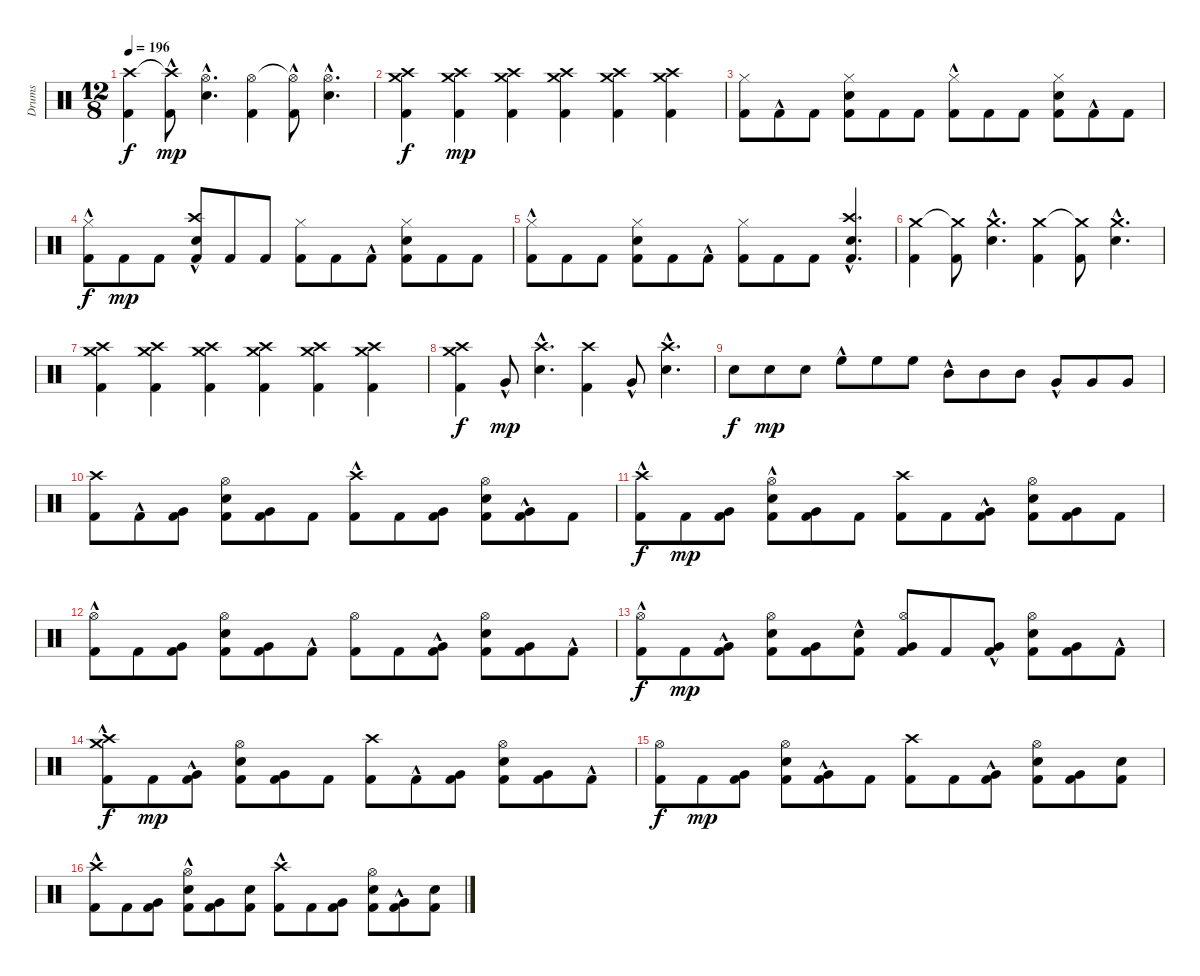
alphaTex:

\track ("Drums" "Drums") {instrument percussion}
\staff {score}
\articulation defaults
\ts (12 8)
\tempo 196
\clef neutral
\ks c
("Kick (hit) 2" "Crash high (hit)").4{dy f} ("Kick (hit) 2"{hac} "Crash high (hit)"{t}).8{dy mp} ("Electric Snare (hit)"{hac} "Hi-Hat (open)"{hac}).4{d} ("Kick (hit) 2" "Hi-Hat (open)").4 ("Kick (hit) 2"{hac} "Hi-Hat (open)"{t}).8 ("Electric Snare (hit)"{hac} "Hi-Hat (open)"{hac}).4{d} |
("Kick (hit) 2" "Crash high (hit)" "Crash medium (hit)").4{dy f} ("Kick (hit) 2" "Crash high (hit)" "Crash medium (hit)").4{dy mp} ("Kick (hit) 2" "Crash high (hit)" "Crash medium (hit)").4 ("Kick (hit) 2" "Crash high (hit)" "Crash medium (hit)").4 ("Kick (hit) 2" "Crash high (hit)" "Crash medium (hit)").4 ("Kick (hit) 2" "Crash high (hit)" "Crash medium (hit)").4 |
("Kick (hit) 2" "Hi-Hat (closed)").8 "Kick (hit) 2"{hac}.8 "Kick (hit) 2".8 ("Kick (hit) 2" "Electric Snare (hit)" "Hi-Hat (closed)").8 "Kick (hit) 2".8 "Kick (hit) 2".8 ("Kick (hit) 2"{hac} "Hi-Hat (closed)").8 "Kick (hit) 2".8 "Kick (hit) 2".8 ("Kick (hit) 2" "Electric Snare (hit)" "Hi-Hat (closed)").8 "Kick (hit) 2"{hac}.8 "Kick (hit) 2".8 |
("Kick (hit) 2" "Hi-Hat (closed)"{hac}).8{dy f} "Kick (hit) 2".8{dy mp} "Kick (hit) 2".8 ("Kick (hit) 2"{hac} "Electric Snare (hit)" "Crash high (hit)").8 "Kick (hit) 2".8 "Kick (hit) 2".8 ("Kick (hit) 2" "Hi-Hat (closed)").8 "Kick (hit) 2".8 "Kick (hit) 2"{hac}.8 ("Kick (hit) 2" "Electric Snare (hit)" "Hi-Hat (closed)").8 "Kick (hit) 2".8 "Kick (hit) 2".8 |
("Kick (hit) 2"{hac} "Hi-Hat (closed)").8 "Kick (hit) 2".8 "Kick (hit) 2".8 ("Kick (hit) 2" "Electric Snare (hit)" "Hi-Hat (closed)").8 "Kick (hit) 2".8 "Kick (hit) 2"{hac}.8 ("Kick (hit) 2" "Hi-Hat (closed)").8 "Kick (hit) 2".8 "Kick (hit) 2".8 ("Kick (hit) 2"{hac} "Electric Snare (hit)"{hac} "Crash high (hit)"{hac}).4{d} |
("Kick (hit) 2" "Crash medium (hit)").4 ("Kick (hit) 2" "Crash medium (hit)"{t}).8 ("Electric Snare (hit)"{hac} "Crash medium (hit)"{hac}).4{d} ("Kick (hit) 2" "Crash medium (hit)").4 ("Kick (hit) 2" "Crash medium (hit)"{t}).8 ("Electric Snare (hit)"{hac} "Crash medium (hit)"{hac}).4{d} |
("Kick (hit) 2" "Crash high (hit)" "Crash medium (hit)").4 ("Kick (hit) 2" "Crash high (hit)" "Crash medium (hit)").4 ("Kick (hit) 2" "Crash high (hit)" "Crash medium (hit)").4 ("Kick (hit) 2" "Crash high (hit)" "Crash medium (hit)").4 ("Kick (hit) 2" "Crash high (hit)" "Crash medium (hit)").4 ("Kick (hit) 2" "Crash high (hit)" "Crash medium (hit)").4 |
("Kick (hit) 2" "Crash high (hit)" "Crash medium (hit)").4{dy f} "Very Low Tom (hit)"{hac}.8{dy mp} ("Electric Snare (hit)"{hac} "Crash high (hit)"{hac}).4{d} ("Kick (hit) 2" "Crash high (hit)").4 "Very Low Tom (hit)"{hac}.8 ("Electric Snare (hit)"{hac} "Crash high (hit)"{hac}).4{d} |
"Electric Snare (hit)".8{dy f} "Electric Snare (hit)".8{dy mp} "Electric Snare (hit)".8 "High Floor Tom (hit)"{hac}.8 "High Floor Tom (hit)".8 "High Floor Tom (hit)".8 "Mid Tom (hit)"{hac}.8 "Mid Tom (hit)".8 "Mid Tom (hit)".8 "Very Low Tom (hit)"{hac}.8 "Very Low Tom (hit)".8 "Very Low Tom (hit)".8 |
("Kick (hit) 2" "Crash high (hit)").8 "Kick (hit) 2"{hac}.8 ("Kick (hit) 2" "Very Low Tom (hit)").8 ("Kick (hit) 2" "Electric Snare (hit)" "Hi-Hat (open)").8 ("Kick (hit) 2" "Very Low Tom (hit)").8 "Kick (hit) 2".8 ("Kick (hit) 2"{hac} "Crash high (hit)").8 "Kick (hit) 2".8 ("Kick (hit) 2" "Very Low Tom (hit)").8 ("Kick (hit) 2" "Electric Snare (hit)" "Hi-Hat (open)").8 ("Kick (hit) 2"{hac} "Very Low Tom (hit)"{hac}).8 "Kick (hit) 2".8 |
("Kick (hit) 2" "Crash high (hit)"{hac}).8{dy f} "Kick (hit) 2".8{dy mp} ("Kick (hit) 2" "Very Low Tom (hit)").8 ("Kick (hit) 2"{hac} "Electric Snare (hit)" "Hi-Hat (open)").8 ("Kick (hit) 2" "Very Low Tom (hit)").8 "Kick (hit) 2".8 ("Kick (hit) 2" "Crash high (hit)").8 "Kick (hit) 2".8 ("Kick (hit) 2"{hac} "Very Low Tom (hit)"{hac}).8 ("Kick (hit) 2" "Electric Snare (hit)" "Hi-Hat (open)").8 ("Kick (hit) 2" "Very Low Tom (hit)").8 "Kick (hit) 2".8 |
("Kick (hit) 2"{hac} "Hi-Hat (open)").8 "Kick (hit) 2".8 ("Kick (hit) 2" "Very Low Tom (hit)").8 ("Kick (hit) 2" "Electric Snare (hit)" "Hi-Hat (open)").8 ("Kick (hit) 2" "Very Low Tom (hit)").8 "Kick (hit) 2"{hac}.8 ("Kick (hit) 2" "Hi-Hat (open)").8 "Kick (hit) 2".8 ("Kick (hit) 2"{hac} "Very Low Tom (hit)"{hac}).8 ("Kick (hit) 2" "Electric Snare (hit)" "Hi-Hat (open)").8 ("Kick (hit) 2" "Very Low Tom (hit)").8 "Kick (hit) 2"{hac}.8 |
("Kick (hit) 2" "Hi-Hat (open)"{hac}).8{dy f} "Kick (hit) 2".8{dy mp} ("Kick (hit) 2"{hac} "Very Low Tom (hit)"{hac}).8 ("Kick (hit) 2" "Electric Snare (hit)" "Hi-Hat (open)").8 ("Kick (hit) 2" "Very Low Tom (hit)").8 ("Kick (hit) 2"{hac} "Electric Snare (hit)"{hac}).8 ("Kick (hit) 2" "Very Low Tom (hit)" "Hi-Hat (open)").8 "Kick (hit) 2".8 ("Kick (hit) 2"{hac} "Very Low Tom (hit)"{hac}).8 ("Kick (hit) 2" "Electric Snare (hit)" "Hi-Hat (open)").8 ("Kick (hit) 2" "Very Low Tom (hit)").8 "Kick (hit) 2"{hac}.8 |
("Kick (hit) 2" "Crash high (hit)"{hac} "Crash medium (hit)"{hac}).8{dy f} "Kick (hit) 2".8{dy mp} ("Kick (hit) 2"{hac} "Very Low Tom (hit)"{hac}).8 ("Kick (hit) 2" "Electric Snare (hit)" "Hi-Hat (open)").8 ("Kick (hit) 2" "Very Low Tom (hit)").8 "Kick (hit) 2".8 ("Kick (hit) 2" "Crash high (hit)").8 "Kick (hit) 2"{hac}.8 ("Kick (hit) 2" "Very Low Tom (hit)").8 ("Kick (hit) 2" "Electric Snare (hit)" "Hi-Hat (open)").8 ("Kick (hit) 2" "Very Low Tom (hit)").8 "Kick (hit) 2"{hac}.8 |
("Kick (hit) 2" "Hi-Hat (open)").8{dy f} "Kick (hit) 2".8{dy mp} ("Kick (hit) 2" "Very Low Tom (hit)").8 ("Kick (hit) 2" "Electric Snare (hit)" "Hi-Hat (open)").8 ("Kick (hit) 2"{hac} "Very Low Tom (hit)"{hac}).8 "Kick (hit) 2".8 ("Kick (hit) 2" "Crash high (hit)").8 "Kick (hit) 2".8 ("Kick (hit) 2"{hac} "Very Low Tom (hit)"{hac}).8 ("Kick (hit) 2" "Electric Snare (hit)" "Hi-Hat (open)").8 ("Kick (hit) 2" "Very Low Tom (hit)").8 ("Kick (hit) 2" "Electric Snare (hit)").8 |
("Kick (hit) 2"{hac} "Crash high (hit)").8 "Kick (hit) 2".8 ("Kick (hit) 2" "Very Low Tom (hit)").8 ("Kick (hit) 2"{hac} "Electric Snare (hit)"{hac} "Hi-Hat (open)").8 ("Kick (hit) 2" "Very Low Tom (hit)").8 ("Kick (hit) 2" "Electric Snare (hit)").8 ("Kick (hit) 2"{hac} "Crash high (hit)").8 "Kick (hit) 2".8 ("Kick (hit) 2" "Very Low Tom (hit)").8 ("Kick (hit) 2" "Electric Snare (hit)" "Hi-Hat (open)").8 ("Kick (hit) 2"{hac} "Very Low Tom (hit)"{hac}).8 ("Kick (hit) 2" "Electric Snare (hit)").8
